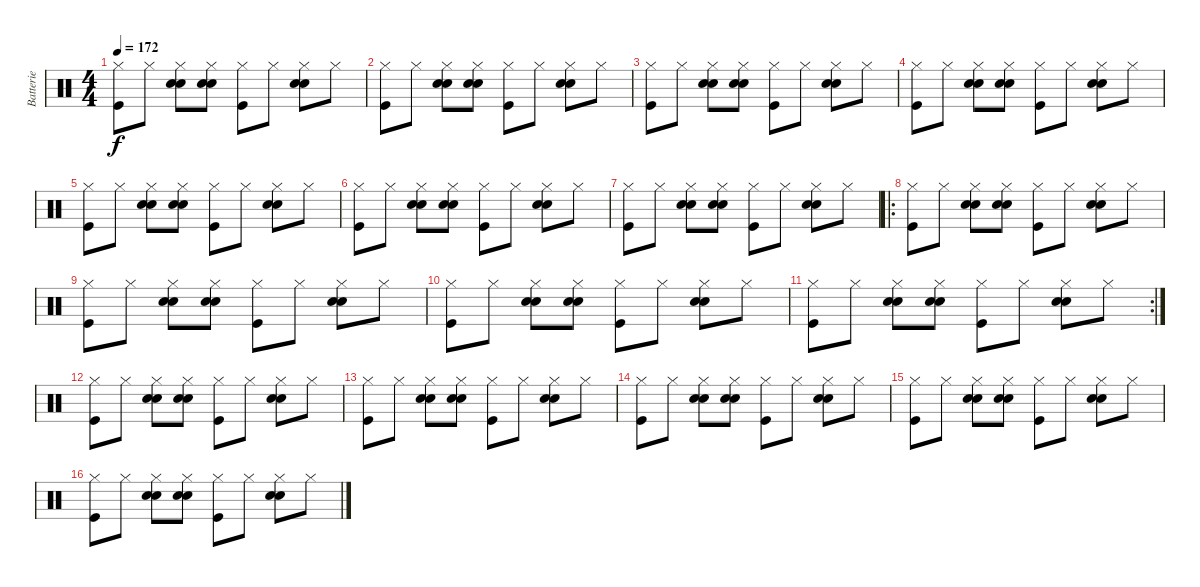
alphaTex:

\track ("Batterie" "Batterie") {instrument percussion}
\staff {score}
\articulation defaults
\ts (4 4)
\tempo 172
\clef neutral
\ks c
("Hi-Hat (closed)" "Kick (hit)").8{dy f} "Hi-Hat (closed)".8 ("Electric Snare (hit)" "Hi-Hat (closed)" "Snare (hit) 2").8 ("Electric Snare (hit)" "Hi-Hat (closed)" "Snare (hit) 2").8 ("Hi-Hat (closed)" "Kick (hit)").8 "Hi-Hat (closed)".8 ("Electric Snare (hit)" "Hi-Hat (closed)" "Snare (hit) 2").8 "Hi-Hat (closed)".8 |
("Hi-Hat (closed)" "Kick (hit)").8 "Hi-Hat (closed)".8 ("Electric Snare (hit)" "Hi-Hat (closed)" "Snare (hit) 2").8 ("Electric Snare (hit)" "Hi-Hat (closed)" "Snare (hit) 2").8 ("Hi-Hat (closed)" "Kick (hit)").8 "Hi-Hat (closed)".8 ("Electric Snare (hit)" "Hi-Hat (closed)" "Snare (hit) 2").8 "Hi-Hat (closed)".8 |
("Hi-Hat (closed)" "Kick (hit)").8 "Hi-Hat (closed)".8 ("Electric Snare (hit)" "Hi-Hat (closed)" "Snare (hit) 2").8 ("Electric Snare (hit)" "Hi-Hat (closed)" "Snare (hit) 2").8 ("Hi-Hat (closed)" "Kick (hit)").8 "Hi-Hat (closed)".8 ("Electric Snare (hit)" "Hi-Hat (closed)" "Snare (hit) 2").8 "Hi-Hat (closed)".8 |
("Hi-Hat (closed)" "Kick (hit)").8 "Hi-Hat (closed)".8 ("Electric Snare (hit)" "Hi-Hat (closed)" "Snare (hit) 2").8 ("Electric Snare (hit)" "Hi-Hat (closed)" "Snare (hit) 2").8 ("Hi-Hat (closed)" "Kick (hit)").8 "Hi-Hat (closed)".8 ("Electric Snare (hit)" "Hi-Hat (closed)" "Snare (hit) 2").8 "Hi-Hat (closed)".8 |
("Hi-Hat (closed)" "Kick (hit)").8 "Hi-Hat (closed)".8 ("Electric Snare (hit)" "Hi-Hat (closed)" "Snare (hit) 2").8 ("Electric Snare (hit)" "Hi-Hat (closed)" "Snare (hit) 2").8 ("Hi-Hat (closed)" "Kick (hit)").8 "Hi-Hat (closed)".8 ("Electric Snare (hit)" "Hi-Hat (closed)" "Snare (hit) 2").8 "Hi-Hat (closed)".8 |
("Hi-Hat (closed)" "Kick (hit)").8 "Hi-Hat (closed)".8 ("Electric Snare (hit)" "Hi-Hat (closed)" "Snare (hit) 2").8 ("Electric Snare (hit)" "Hi-Hat (closed)" "Snare (hit) 2").8 ("Hi-Hat (closed)" "Kick (hit)").8 "Hi-Hat (closed)".8 ("Electric Snare (hit)" "Hi-Hat (closed)" "Snare (hit) 2").8 "Hi-Hat (closed)".8 |
("Hi-Hat (closed)" "Kick (hit)").8 "Hi-Hat (closed)".8 ("Electric Snare (hit)" "Hi-Hat (closed)" "Snare (hit) 2").8 ("Electric Snare (hit)" "Hi-Hat (closed)" "Snare (hit) 2").8 ("Hi-Hat (closed)" "Kick (hit)").8 "Hi-Hat (closed)".8 ("Electric Snare (hit)" "Hi-Hat (closed)" "Snare (hit) 2").8 "Hi-Hat (closed)".8 |
\ro
("Hi-Hat (closed)" "Kick (hit)").8 "Hi-Hat (closed)".8 ("Electric Snare (hit)" "Hi-Hat (closed)" "Snare (hit) 2").8 ("Electric Snare (hit)" "Hi-Hat (closed)" "Snare (hit) 2").8 ("Hi-Hat (closed)" "Kick (hit)").8 "Hi-Hat (closed)".8 ("Electric Snare (hit)" "Hi-Hat (closed)" "Snare (hit) 2").8 "Hi-Hat (closed)".8 |
("Hi-Hat (closed)" "Kick (hit)").8 "Hi-Hat (closed)".8 ("Electric Snare (hit)" "Hi-Hat (closed)" "Snare (hit) 2").8 ("Electric Snare (hit)" "Hi-Hat (closed)" "Snare (hit) 2").8 ("Hi-Hat (closed)" "Kick (hit)").8 "Hi-Hat (closed)".8 ("Electric Snare (hit)" "Hi-Hat (closed)" "Snare (hit) 2").8 "Hi-Hat (closed)".8 |
("Hi-Hat (closed)" "Kick (hit)").8 "Hi-Hat (closed)".8 ("Electric Snare (hit)" "Hi-Hat (closed)" "Snare (hit) 2").8 ("Electric Snare (hit)" "Hi-Hat (closed)" "Snare (hit) 2").8 ("Hi-Hat (closed)" "Kick (hit)").8 "Hi-Hat (closed)".8 ("Electric Snare (hit)" "Hi-Hat (closed)" "Snare (hit) 2").8 "Hi-Hat (closed)".8 |
\rc 2
("Hi-Hat (closed)" "Kick (hit)").8 "Hi-Hat (closed)".8 ("Electric Snare (hit)" "Hi-Hat (closed)" "Snare (hit) 2").8 ("Electric Snare (hit)" "Hi-Hat (closed)" "Snare (hit) 2").8 ("Hi-Hat (closed)" "Kick (hit)").8 "Hi-Hat (closed)".8 ("Electric Snare (hit)" "Hi-Hat (closed)" "Snare (hit) 2").8 "Hi-Hat (closed)".8 |
("Hi-Hat (closed)" "Kick (hit)").8 "Hi-Hat (closed)".8 ("Electric Snare (hit)" "Hi-Hat (closed)" "Snare (hit) 2").8 ("Electric Snare (hit)" "Hi-Hat (closed)" "Snare (hit) 2").8 ("Hi-Hat (closed)" "Kick (hit)").8 "Hi-Hat (closed)".8 ("Electric Snare (hit)" "Hi-Hat (closed)" "Snare (hit) 2").8 "Hi-Hat (closed)".8 |
("Hi-Hat (closed)" "Kick (hit)").8 "Hi-Hat (closed)".8 ("Electric Snare (hit)" "Hi-Hat (closed)" "Snare (hit) 2").8 ("Electric Snare (hit)" "Hi-Hat (closed)" "Snare (hit) 2").8 ("Hi-Hat (closed)" "Kick (hit)").8 "Hi-Hat (closed)".8 ("Electric Snare (hit)" "Hi-Hat (closed)" "Snare (hit) 2").8 "Hi-Hat (closed)".8 |
("Hi-Hat (closed)" "Kick (hit)").8 "Hi-Hat (closed)".8 ("Electric Snare (hit)" "Hi-Hat (closed)" "Snare (hit) 2").8 ("Electric Snare (hit)" "Hi-Hat (closed)" "Snare (hit) 2").8 ("Hi-Hat (closed)" "Kick (hit)").8 "Hi-Hat (closed)".8 ("Electric Snare (hit)" "Hi-Hat (closed)" "Snare (hit) 2").8 "Hi-Hat (closed)".8 |
("Hi-Hat (closed)" "Kick (hit)").8 "Hi-Hat (closed)".8 ("Electric Snare (hit)" "Hi-Hat (closed)" "Snare (hit) 2").8 ("Electric Snare (hit)" "Hi-Hat (closed)" "Snare (hit) 2").8 ("Hi-Hat (closed)" "Kick (hit)").8 "Hi-Hat (closed)".8 ("Electric Snare (hit)" "Hi-Hat (closed)" "Snare (hit) 2").8 "Hi-Hat (closed)".8 |
("Hi-Hat (closed)" "Kick (hit)").8 "Hi-Hat (closed)".8 ("Electric Snare (hit)" "Hi-Hat (closed)" "Snare (hit) 2").8 ("Electric Snare (hit)" "Hi-Hat (closed)" "Snare (hit) 2").8 ("Hi-Hat (closed)" "Kick (hit)").8 "Hi-Hat (closed)".8 ("Electric Snare (hit)" "Hi-Hat (closed)" "Snare (hit) 2").8 "Hi-Hat (closed)".8
